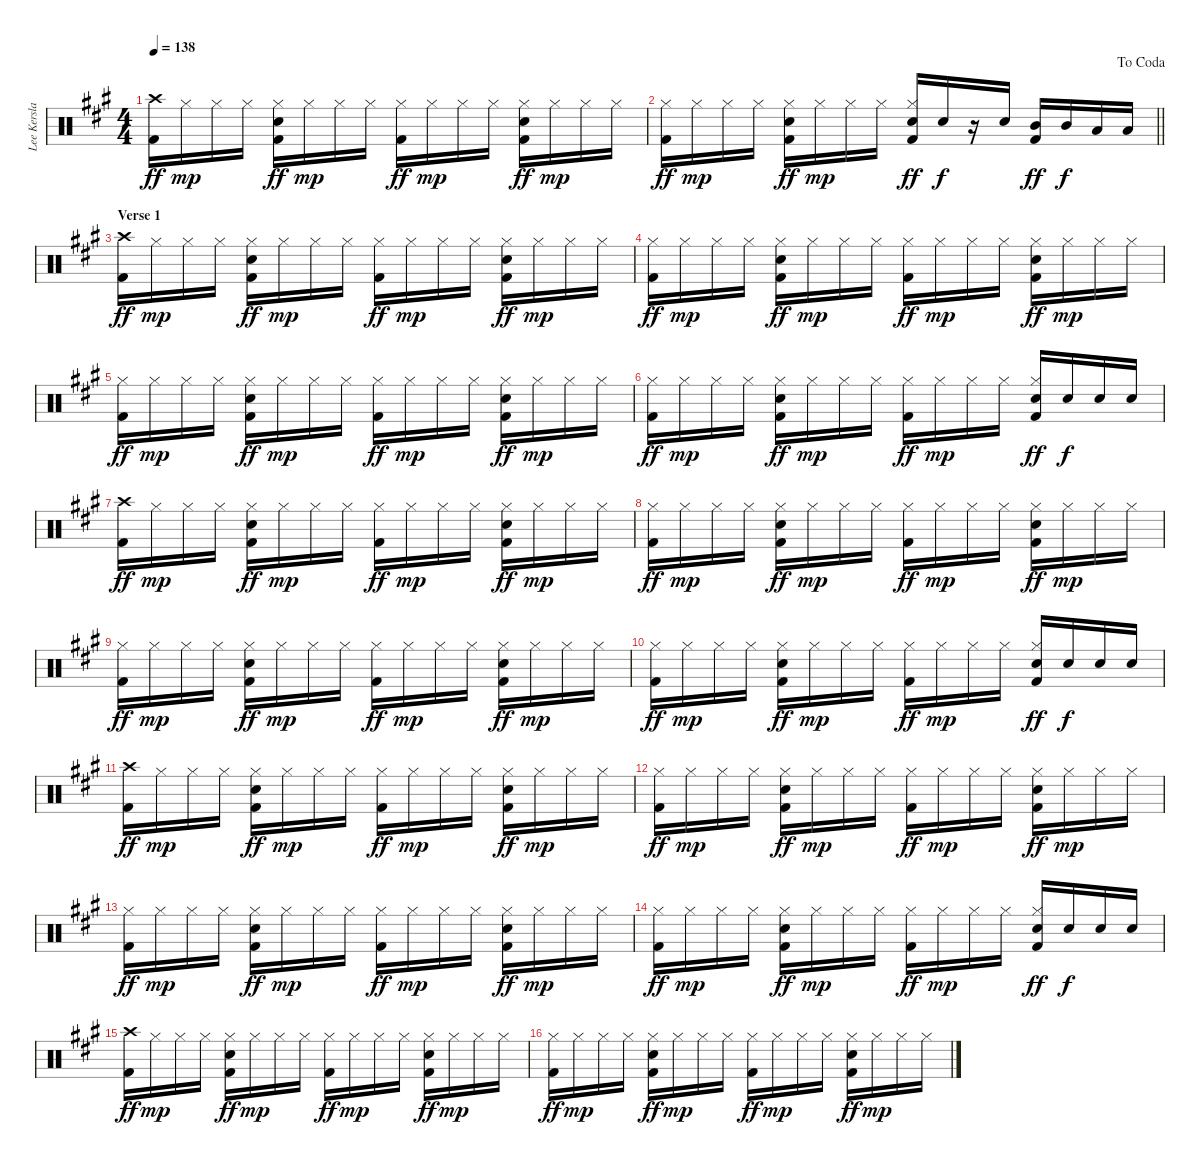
\track ("Lee Kerslake" "Lee Kersla") {instrument percussion}
\staff {score}
\articulation defaults
\ts (4 4)
\tempo 138
\clef neutral
\ks a
("Crash high (hit)" "Kick (hit) 2").16{dy ff} "Hi-Hat (closed)".16{dy mp} "Hi-Hat (closed)".16 "Hi-Hat (closed)".16 ("Hi-Hat (closed)" "Snare (hit) 2" "Kick (hit) 2").16{dy ff} "Hi-Hat (closed)".16{dy mp} "Hi-Hat (closed)".16 "Hi-Hat (closed)".16 ("Hi-Hat (closed)" "Kick (hit) 2").16{dy ff} "Hi-Hat (closed)".16{dy mp} "Hi-Hat (closed)".16 "Hi-Hat (closed)".16 ("Hi-Hat (closed)" "Snare (hit) 2" "Kick (hit) 2").16{dy ff} "Hi-Hat (closed)".16{dy mp} "Hi-Hat (closed)".16 "Hi-Hat (closed)".16 |
\jump dacoda
\barLineRight lightlight
("Hi-Hat (closed)" "Kick (hit) 2").16{dy ff} "Hi-Hat (closed)".16{dy mp} "Hi-Hat (closed)".16 "Hi-Hat (closed)".16 ("Hi-Hat (closed)" "Snare (hit) 2" "Kick (hit) 2").16{dy ff} "Hi-Hat (closed)".16{dy mp} "Hi-Hat (closed)".16 "Hi-Hat (closed)".16 ("Hi-Hat (closed)" "Snare (hit) 2" "Kick (hit) 2").16{dy ff} "Snare (hit) 2".16{dy f} r.16 "Snare (hit) 2".16 ("Mid Tom (hit)" "Kick (hit) 2").16{dy ff} "Mid Tom (hit)".16{dy f} "Low Tom (hit)".16 "Low Tom (hit)".16 |
\section ("" "Verse 1")
("Crash high (hit)" "Kick (hit) 2").16{dy ff} "Hi-Hat (closed)".16{dy mp} "Hi-Hat (closed)".16 "Hi-Hat (closed)".16 ("Hi-Hat (closed)" "Snare (hit) 2" "Kick (hit) 2").16{dy ff} "Hi-Hat (closed)".16{dy mp} "Hi-Hat (closed)".16 "Hi-Hat (closed)".16 ("Hi-Hat (closed)" "Kick (hit) 2").16{dy ff} "Hi-Hat (closed)".16{dy mp} "Hi-Hat (closed)".16 "Hi-Hat (closed)".16 ("Hi-Hat (closed)" "Snare (hit) 2" "Kick (hit) 2").16{dy ff} "Hi-Hat (closed)".16{dy mp} "Hi-Hat (closed)".16 "Hi-Hat (closed)".16 |
("Hi-Hat (closed)" "Kick (hit) 2").16{dy ff} "Hi-Hat (closed)".16{dy mp} "Hi-Hat (closed)".16 "Hi-Hat (closed)".16 ("Hi-Hat (closed)" "Snare (hit) 2" "Kick (hit) 2").16{dy ff} "Hi-Hat (closed)".16{dy mp} "Hi-Hat (closed)".16 "Hi-Hat (closed)".16 ("Hi-Hat (closed)" "Kick (hit) 2").16{dy ff} "Hi-Hat (closed)".16{dy mp} "Hi-Hat (closed)".16 "Hi-Hat (closed)".16 ("Hi-Hat (closed)" "Snare (hit) 2" "Kick (hit) 2").16{dy ff} "Hi-Hat (closed)".16{dy mp} "Hi-Hat (closed)".16 "Hi-Hat (closed)".16 |
("Hi-Hat (closed)" "Kick (hit) 2").16{dy ff} "Hi-Hat (closed)".16{dy mp} "Hi-Hat (closed)".16 "Hi-Hat (closed)".16 ("Hi-Hat (closed)" "Snare (hit) 2" "Kick (hit) 2").16{dy ff} "Hi-Hat (closed)".16{dy mp} "Hi-Hat (closed)".16 "Hi-Hat (closed)".16 ("Hi-Hat (closed)" "Kick (hit) 2").16{dy ff} "Hi-Hat (closed)".16{dy mp} "Hi-Hat (closed)".16 "Hi-Hat (closed)".16 ("Hi-Hat (closed)" "Snare (hit) 2" "Kick (hit) 2").16{dy ff} "Hi-Hat (closed)".16{dy mp} "Hi-Hat (closed)".16 "Hi-Hat (closed)".16 |
("Hi-Hat (closed)" "Kick (hit) 2").16{dy ff} "Hi-Hat (closed)".16{dy mp} "Hi-Hat (closed)".16 "Hi-Hat (closed)".16 ("Hi-Hat (closed)" "Snare (hit) 2" "Kick (hit) 2").16{dy ff} "Hi-Hat (closed)".16{dy mp} "Hi-Hat (closed)".16 "Hi-Hat (closed)".16 ("Hi-Hat (closed)" "Kick (hit) 2").16{dy ff} "Hi-Hat (closed)".16{dy mp} "Hi-Hat (closed)".16 "Hi-Hat (closed)".16 ("Hi-Hat (closed)" "Snare (hit) 2" "Kick (hit) 2").16{dy ff} "Snare (hit) 2".16{dy f} "Snare (hit) 2".16 "Snare (hit) 2".16 |
("Crash high (hit)" "Kick (hit) 2").16{dy ff} "Hi-Hat (closed)".16{dy mp} "Hi-Hat (closed)".16 "Hi-Hat (closed)".16 ("Hi-Hat (closed)" "Snare (hit) 2" "Kick (hit) 2").16{dy ff} "Hi-Hat (closed)".16{dy mp} "Hi-Hat (closed)".16 "Hi-Hat (closed)".16 ("Hi-Hat (closed)" "Kick (hit) 2").16{dy ff} "Hi-Hat (closed)".16{dy mp} "Hi-Hat (closed)".16 "Hi-Hat (closed)".16 ("Hi-Hat (closed)" "Snare (hit) 2" "Kick (hit) 2").16{dy ff} "Hi-Hat (closed)".16{dy mp} "Hi-Hat (closed)".16 "Hi-Hat (closed)".16 |
("Hi-Hat (closed)" "Kick (hit) 2").16{dy ff} "Hi-Hat (closed)".16{dy mp} "Hi-Hat (closed)".16 "Hi-Hat (closed)".16 ("Hi-Hat (closed)" "Snare (hit) 2" "Kick (hit) 2").16{dy ff} "Hi-Hat (closed)".16{dy mp} "Hi-Hat (closed)".16 "Hi-Hat (closed)".16 ("Hi-Hat (closed)" "Kick (hit) 2").16{dy ff} "Hi-Hat (closed)".16{dy mp} "Hi-Hat (closed)".16 "Hi-Hat (closed)".16 ("Hi-Hat (closed)" "Snare (hit) 2" "Kick (hit) 2").16{dy ff} "Hi-Hat (closed)".16{dy mp} "Hi-Hat (closed)".16 "Hi-Hat (closed)".16 |
("Hi-Hat (closed)" "Kick (hit) 2").16{dy ff} "Hi-Hat (closed)".16{dy mp} "Hi-Hat (closed)".16 "Hi-Hat (closed)".16 ("Hi-Hat (closed)" "Snare (hit) 2" "Kick (hit) 2").16{dy ff} "Hi-Hat (closed)".16{dy mp} "Hi-Hat (closed)".16 "Hi-Hat (closed)".16 ("Hi-Hat (closed)" "Kick (hit) 2").16{dy ff} "Hi-Hat (closed)".16{dy mp} "Hi-Hat (closed)".16 "Hi-Hat (closed)".16 ("Hi-Hat (closed)" "Snare (hit) 2" "Kick (hit) 2").16{dy ff} "Hi-Hat (closed)".16{dy mp} "Hi-Hat (closed)".16 "Hi-Hat (closed)".16 |
("Hi-Hat (closed)" "Kick (hit) 2").16{dy ff} "Hi-Hat (closed)".16{dy mp} "Hi-Hat (closed)".16 "Hi-Hat (closed)".16 ("Hi-Hat (closed)" "Snare (hit) 2" "Kick (hit) 2").16{dy ff} "Hi-Hat (closed)".16{dy mp} "Hi-Hat (closed)".16 "Hi-Hat (closed)".16 ("Hi-Hat (closed)" "Kick (hit) 2").16{dy ff} "Hi-Hat (closed)".16{dy mp} "Hi-Hat (closed)".16 "Hi-Hat (closed)".16 ("Hi-Hat (closed)" "Snare (hit) 2" "Kick (hit) 2").16{dy ff} "Snare (hit) 2".16{dy f} "Snare (hit) 2".16 "Snare (hit) 2".16 |
("Crash high (hit)" "Kick (hit) 2").16{dy ff} "Hi-Hat (closed)".16{dy mp} "Hi-Hat (closed)".16 "Hi-Hat (closed)".16 ("Hi-Hat (closed)" "Snare (hit) 2" "Kick (hit) 2").16{dy ff} "Hi-Hat (closed)".16{dy mp} "Hi-Hat (closed)".16 "Hi-Hat (closed)".16 ("Hi-Hat (closed)" "Kick (hit) 2").16{dy ff} "Hi-Hat (closed)".16{dy mp} "Hi-Hat (closed)".16 "Hi-Hat (closed)".16 ("Hi-Hat (closed)" "Snare (hit) 2" "Kick (hit) 2").16{dy ff} "Hi-Hat (closed)".16{dy mp} "Hi-Hat (closed)".16 "Hi-Hat (closed)".16 |
("Hi-Hat (closed)" "Kick (hit) 2").16{dy ff} "Hi-Hat (closed)".16{dy mp} "Hi-Hat (closed)".16 "Hi-Hat (closed)".16 ("Hi-Hat (closed)" "Snare (hit) 2" "Kick (hit) 2").16{dy ff} "Hi-Hat (closed)".16{dy mp} "Hi-Hat (closed)".16 "Hi-Hat (closed)".16 ("Hi-Hat (closed)" "Kick (hit) 2").16{dy ff} "Hi-Hat (closed)".16{dy mp} "Hi-Hat (closed)".16 "Hi-Hat (closed)".16 ("Hi-Hat (closed)" "Snare (hit) 2" "Kick (hit) 2").16{dy ff} "Hi-Hat (closed)".16{dy mp} "Hi-Hat (closed)".16 "Hi-Hat (closed)".16 |
("Hi-Hat (closed)" "Kick (hit) 2").16{dy ff} "Hi-Hat (closed)".16{dy mp} "Hi-Hat (closed)".16 "Hi-Hat (closed)".16 ("Hi-Hat (closed)" "Snare (hit) 2" "Kick (hit) 2").16{dy ff} "Hi-Hat (closed)".16{dy mp} "Hi-Hat (closed)".16 "Hi-Hat (closed)".16 ("Hi-Hat (closed)" "Kick (hit) 2").16{dy ff} "Hi-Hat (closed)".16{dy mp} "Hi-Hat (closed)".16 "Hi-Hat (closed)".16 ("Hi-Hat (closed)" "Snare (hit) 2" "Kick (hit) 2").16{dy ff} "Hi-Hat (closed)".16{dy mp} "Hi-Hat (closed)".16 "Hi-Hat (closed)".16 |
("Hi-Hat (closed)" "Kick (hit) 2").16{dy ff} "Hi-Hat (closed)".16{dy mp} "Hi-Hat (closed)".16 "Hi-Hat (closed)".16 ("Hi-Hat (closed)" "Snare (hit) 2" "Kick (hit) 2").16{dy ff} "Hi-Hat (closed)".16{dy mp} "Hi-Hat (closed)".16 "Hi-Hat (closed)".16 ("Hi-Hat (closed)" "Kick (hit) 2").16{dy ff} "Hi-Hat (closed)".16{dy mp} "Hi-Hat (closed)".16 "Hi-Hat (closed)".16 ("Hi-Hat (closed)" "Snare (hit) 2" "Kick (hit) 2").16{dy ff} "Snare (hit) 2".16{dy f} "Snare (hit) 2".16 "Snare (hit) 2".16 |
("Crash high (hit)" "Kick (hit) 2").16{dy ff} "Hi-Hat (closed)".16{dy mp} "Hi-Hat (closed)".16 "Hi-Hat (closed)".16 ("Hi-Hat (closed)" "Snare (hit) 2" "Kick (hit) 2").16{dy ff} "Hi-Hat (closed)".16{dy mp} "Hi-Hat (closed)".16 "Hi-Hat (closed)".16 ("Hi-Hat (closed)" "Kick (hit) 2").16{dy ff} "Hi-Hat (closed)".16{dy mp} "Hi-Hat (closed)".16 "Hi-Hat (closed)".16 ("Hi-Hat (closed)" "Snare (hit) 2" "Kick (hit) 2").16{dy ff} "Hi-Hat (closed)".16{dy mp} "Hi-Hat (closed)".16 "Hi-Hat (closed)".16 |
("Hi-Hat (closed)" "Kick (hit) 2").16{dy ff} "Hi-Hat (closed)".16{dy mp} "Hi-Hat (closed)".16 "Hi-Hat (closed)".16 ("Hi-Hat (closed)" "Snare (hit) 2" "Kick (hit) 2").16{dy ff} "Hi-Hat (closed)".16{dy mp} "Hi-Hat (closed)".16 "Hi-Hat (closed)".16 ("Hi-Hat (closed)" "Kick (hit) 2").16{dy ff} "Hi-Hat (closed)".16{dy mp} "Hi-Hat (closed)".16 "Hi-Hat (closed)".16 ("Hi-Hat (closed)" "Snare (hit) 2" "Kick (hit) 2").16{dy ff} "Hi-Hat (closed)".16{dy mp} "Hi-Hat (closed)".16 "Hi-Hat (closed)".16
